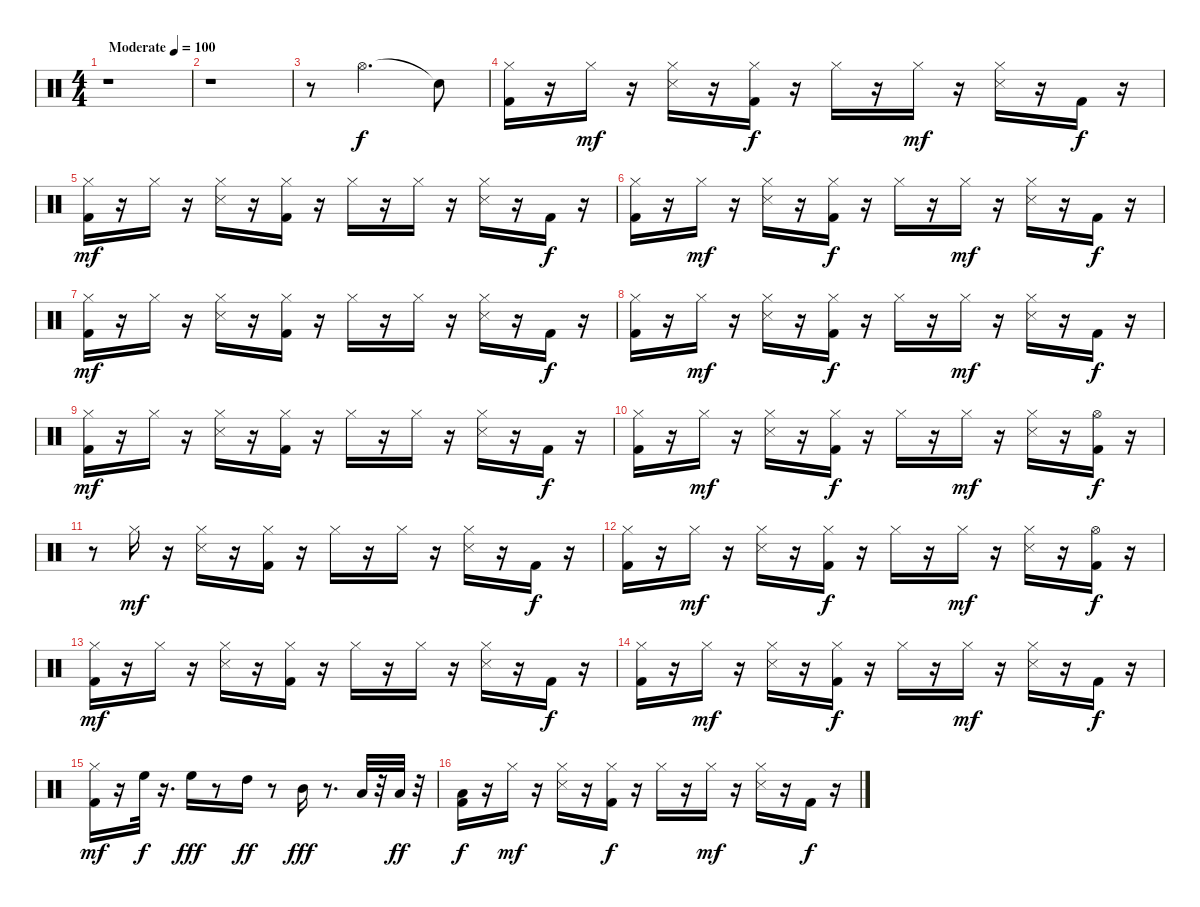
\track "" {instrument percussion}
\staff {score}
\articulation defaults
\ts (4 4)
\tempo (100 "Moderate")
\clef neutral
\ks c
r.1{dy f} |
r.1 |
r.8 "Hi-Hat (open)".2{d balance 8} "Snare (hit)"{t}.8 |
("Hi-Hat (closed)" "Kick (hit) 2").16 r.16 "Hi-Hat (closed)".16{dy mf} r.16 ("Hi-Hat (closed)" "Snare (side stick) 3").16 r.16 ("Kick (hit) 2" "Hi-Hat (closed)").16{dy f} r.16 "Hi-Hat (closed)".16 r.16 "Hi-Hat (closed)".16{dy mf} r.16 ("Hi-Hat (closed)" "Snare (side stick) 3").16 r.16 "Kick (hit) 2".16{dy f} r.16 |
("Kick (hit) 2" "Hi-Hat (closed)").16{dy mf} r.16 "Hi-Hat (closed)".16 r.16 ("Hi-Hat (closed)" "Snare (side stick) 3").16 r.16 ("Kick (hit) 2" "Hi-Hat (closed)").16 r.16 "Hi-Hat (closed)".16 r.16 "Hi-Hat (closed)".16 r.16 ("Hi-Hat (closed)" "Snare (side stick) 3").16 r.16 "Kick (hit) 2".16{dy f} r.16 |
("Hi-Hat (closed)" "Kick (hit) 2").16 r.16 "Hi-Hat (closed)".16{dy mf} r.16 ("Hi-Hat (closed)" "Snare (side stick) 3").16 r.16 ("Kick (hit) 2" "Hi-Hat (closed)").16{dy f} r.16 "Hi-Hat (closed)".16 r.16 "Hi-Hat (closed)".16{dy mf} r.16 ("Hi-Hat (closed)" "Snare (side stick) 3").16 r.16 "Kick (hit) 2".16{dy f} r.16 |
("Kick (hit) 2" "Hi-Hat (closed)").16{dy mf} r.16 "Hi-Hat (closed)".16 r.16 ("Hi-Hat (closed)" "Snare (side stick) 3").16 r.16 ("Kick (hit) 2" "Hi-Hat (closed)").16 r.16 "Hi-Hat (closed)".16 r.16 "Hi-Hat (closed)".16 r.16 ("Hi-Hat (closed)" "Snare (side stick) 3").16 r.16 "Kick (hit) 2".16{dy f} r.16 |
("Hi-Hat (closed)" "Kick (hit) 2").16 r.16 "Hi-Hat (closed)".16{dy mf} r.16 ("Hi-Hat (closed)" "Snare (side stick) 3").16 r.16 ("Kick (hit) 2" "Hi-Hat (closed)").16{dy f} r.16 "Hi-Hat (closed)".16 r.16 "Hi-Hat (closed)".16{dy mf} r.16 ("Hi-Hat (closed)" "Snare (side stick) 3").16 r.16 "Kick (hit) 2".16{dy f} r.16 |
("Kick (hit) 2" "Hi-Hat (closed)").16{dy mf} r.16 "Hi-Hat (closed)".16 r.16 ("Hi-Hat (closed)" "Snare (side stick) 3").16 r.16 ("Kick (hit) 2" "Hi-Hat (closed)").16 r.16 "Hi-Hat (closed)".16 r.16 "Hi-Hat (closed)".16 r.16 ("Hi-Hat (closed)" "Snare (side stick) 3").16 r.16 "Kick (hit) 2".16{dy f} r.16 |
("Hi-Hat (closed)" "Kick (hit) 2").16 r.16 "Hi-Hat (closed)".16{dy mf} r.16 ("Hi-Hat (closed)" "Snare (side stick) 3").16 r.16 ("Kick (hit) 2" "Hi-Hat (closed)").16{dy f} r.16 "Hi-Hat (closed)".16 r.16 "Hi-Hat (closed)".16{dy mf} r.16 ("Hi-Hat (closed)" "Snare (side stick) 3").16 r.16 ("Kick (hit) 2" "Hi-Hat (open)").16{dy f} r.16 |
r.8 "Hi-Hat (closed)".16{dy mf} r.16 ("Hi-Hat (closed)" "Snare (side stick) 3").16 r.16 ("Kick (hit) 2" "Hi-Hat (closed)").16 r.16 "Hi-Hat (closed)".16 r.16 "Hi-Hat (closed)".16 r.16 ("Hi-Hat (closed)" "Snare (side stick) 3").16 r.16 "Kick (hit) 2".16{dy f} r.16 |
("Hi-Hat (closed)" "Kick (hit) 2").16 r.16 "Hi-Hat (closed)".16{dy mf} r.16 ("Hi-Hat (closed)" "Snare (side stick) 3").16 r.16 ("Kick (hit) 2" "Hi-Hat (closed)").16{dy f} r.16 "Hi-Hat (closed)".16 r.16 "Hi-Hat (closed)".16{dy mf} r.16 ("Hi-Hat (closed)" "Snare (side stick) 3").16 r.16 ("Kick (hit) 2" "Hi-Hat (open)").16{dy f} r.16 |
("Kick (hit) 2" "Hi-Hat (closed)").16{dy mf} r.16 "Hi-Hat (closed)".16 r.16 ("Hi-Hat (closed)" "Snare (side stick) 3").16 r.16 ("Kick (hit) 2" "Hi-Hat (closed)").16 r.16 "Hi-Hat (closed)".16 r.16 "Hi-Hat (closed)".16 r.16 ("Hi-Hat (closed)" "Snare (side stick) 3").16 r.16 "Kick (hit) 2".16{dy f} r.16 |
("Hi-Hat (closed)" "Kick (hit) 2").16 r.16 "Hi-Hat (closed)".16{dy mf} r.16 ("Hi-Hat (closed)" "Snare (side stick) 3").16 r.16 ("Kick (hit) 2" "Hi-Hat (closed)").16{dy f} r.16 "Hi-Hat (closed)".16 r.16 "Hi-Hat (closed)".16{dy mf} r.16 ("Hi-Hat (closed)" "Snare (side stick) 3").16 r.16 "Kick (hit) 2".16{dy f} r.16 |
("Hi-Hat (closed)" "Kick (hit) 2").16{dy mf} r.16 "High Floor Tom (hit)".32{dy f} r.16{d} "High Floor Tom (hit)".16{dy fff} r.8 "High Tom (hit)".16{dy ff} r.8 "Mid Tom (hit)".16{dy fff} r.8{d} "Low Tom (hit)".32 r.32 "Low Tom (hit)".32{dy ff} r.32 |
("Low Floor Tom (hit)" "Kick (hit) 2").16{dy f} r.16 "Hi-Hat (closed)".16{dy mf} r.16 ("Hi-Hat (closed)" "Snare (side stick) 3").16 r.16 ("Kick (hit) 2" "Hi-Hat (closed)").16{dy f} r.16 "Hi-Hat (closed)".16 r.16 "Hi-Hat (closed)".16{dy mf} r.16 ("Hi-Hat (closed)" "Snare (side stick) 3").16 r.16 "Kick (hit) 2".16{dy f} r.16
